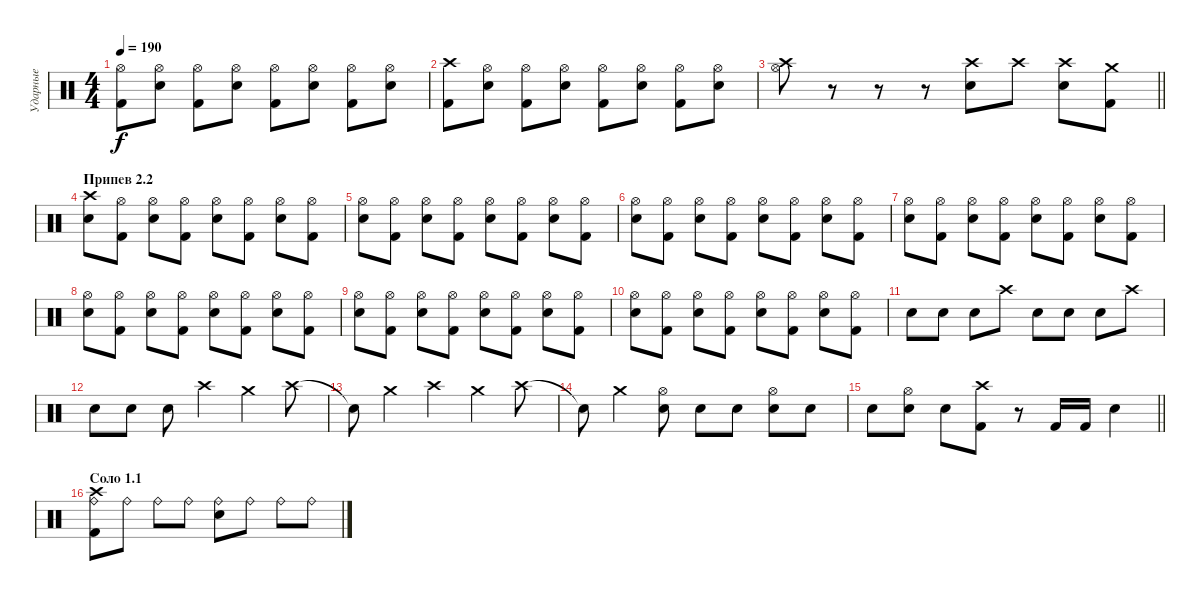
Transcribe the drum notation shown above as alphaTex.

\track ("Ударные" "Ударные") {instrument percussion}
\staff {score}
\articulation defaults
\ts (4 4)
\tempo 190
\clef neutral
\ks c
("Hi-Hat (open)" "Kick (hit) 2").8{dy f} ("Hi-Hat (open)" "Snare (hit) 2").8 ("Hi-Hat (open)" "Kick (hit) 2").8 ("Hi-Hat (open)" "Snare (hit) 2").8 ("Hi-Hat (open)" "Kick (hit) 2").8 ("Hi-Hat (open)" "Snare (hit) 2").8 ("Hi-Hat (open)" "Kick (hit) 2").8 ("Hi-Hat (open)" "Snare (hit) 2").8 |
("Crash high (hit)" "Kick (hit) 2").8 ("Hi-Hat (open)" "Snare (hit) 2").8 ("Hi-Hat (open)" "Kick (hit) 2").8 ("Hi-Hat (open)" "Snare (hit) 2").8 ("Hi-Hat (open)" "Kick (hit) 2").8 ("Hi-Hat (open)" "Snare (hit) 2").8 ("Hi-Hat (open)" "Kick (hit) 2").8 ("Hi-Hat (open)" "Snare (hit) 2").8 |
\barLineRight lightlight
("Hi-Hat (open)" "Crash high (hit)").8 r.8 r.8 r.8 ("Snare (hit) 2" "Crash high (hit)").8 "Crash high (hit)".8 ("Snare (hit) 2" "Crash high (hit)").8 ("Kick (hit) 2" "Crash medium (hit)").8 |
\section ("" "Припев 2.2")
("Crash high (hit)" "Snare (hit) 2").8 ("Hi-Hat (open)" "Kick (hit) 2").8 ("Hi-Hat (open)" "Snare (hit) 2").8 ("Hi-Hat (open)" "Kick (hit) 2").8 ("Hi-Hat (open)" "Snare (hit) 2").8 ("Hi-Hat (open)" "Kick (hit) 2").8 ("Hi-Hat (open)" "Snare (hit) 2").8 ("Hi-Hat (open)" "Kick (hit) 2").8 |
("Hi-Hat (open)" "Snare (hit) 2").8 ("Hi-Hat (open)" "Kick (hit) 2").8 ("Hi-Hat (open)" "Snare (hit) 2").8 ("Hi-Hat (open)" "Kick (hit) 2").8 ("Hi-Hat (open)" "Snare (hit) 2").8 ("Hi-Hat (open)" "Kick (hit) 2").8 ("Hi-Hat (open)" "Snare (hit) 2").8 ("Hi-Hat (open)" "Kick (hit) 2").8 |
("Hi-Hat (open)" "Snare (hit) 2").8 ("Hi-Hat (open)" "Kick (hit) 2").8 ("Hi-Hat (open)" "Snare (hit) 2").8 ("Hi-Hat (open)" "Kick (hit) 2").8 ("Hi-Hat (open)" "Snare (hit) 2").8 ("Hi-Hat (open)" "Kick (hit) 2").8 ("Hi-Hat (open)" "Snare (hit) 2").8 ("Hi-Hat (open)" "Kick (hit) 2").8 |
("Hi-Hat (open)" "Snare (hit) 2").8 ("Hi-Hat (open)" "Kick (hit) 2").8 ("Hi-Hat (open)" "Snare (hit) 2").8 ("Hi-Hat (open)" "Kick (hit) 2").8 ("Hi-Hat (open)" "Snare (hit) 2").8 ("Hi-Hat (open)" "Kick (hit) 2").8 ("Hi-Hat (open)" "Snare (hit) 2").8 ("Hi-Hat (open)" "Kick (hit) 2").8 |
("Hi-Hat (open)" "Snare (hit) 2").8 ("Hi-Hat (open)" "Kick (hit) 2").8 ("Hi-Hat (open)" "Snare (hit) 2").8 ("Hi-Hat (open)" "Kick (hit) 2").8 ("Hi-Hat (open)" "Snare (hit) 2").8 ("Hi-Hat (open)" "Kick (hit) 2").8 ("Hi-Hat (open)" "Snare (hit) 2").8 ("Hi-Hat (open)" "Kick (hit) 2").8 |
("Hi-Hat (open)" "Snare (hit) 2").8 ("Hi-Hat (open)" "Kick (hit) 2").8 ("Hi-Hat (open)" "Snare (hit) 2").8 ("Hi-Hat (open)" "Kick (hit) 2").8 ("Hi-Hat (open)" "Snare (hit) 2").8 ("Hi-Hat (open)" "Kick (hit) 2").8 ("Hi-Hat (open)" "Snare (hit) 2").8 ("Hi-Hat (open)" "Kick (hit) 2").8 |
("Hi-Hat (open)" "Snare (hit) 2").8 ("Hi-Hat (open)" "Kick (hit) 2").8 ("Hi-Hat (open)" "Snare (hit) 2").8 ("Hi-Hat (open)" "Kick (hit) 2").8 ("Hi-Hat (open)" "Snare (hit) 2").8 ("Hi-Hat (open)" "Kick (hit) 2").8 ("Hi-Hat (open)" "Snare (hit) 2").8 ("Hi-Hat (open)" "Kick (hit) 2").8 |
"Electric Snare (hit)".8 "Electric Snare (hit)".8 "Electric Snare (hit)".8 "Crash high (hit)".8 "Electric Snare (hit)".8 "Electric Snare (hit)".8 "Electric Snare (hit)".8 "Crash high (hit)".8 |
"Electric Snare (hit)".8 "Electric Snare (hit)".8 "Electric Snare (hit)".8 "Crash high (hit)".4 "Crash medium (hit)".4 "Crash high (hit)".8 |
"Snare (hit)"{t}.8 "Crash medium (hit)".4 "Crash high (hit)".4 "Crash medium (hit)".4 "Crash high (hit)".8 |
"Snare (hit)"{t}.8 "Crash medium (hit)".4 ("Hi-Hat (open)" "Snare (hit) 2").8 "Electric Snare (hit)".8 "Electric Snare (hit)".8 ("Hi-Hat (open)" "Snare (hit) 2").8 "Electric Snare (hit)".8 |
\barLineRight lightlight "Electric Snare (hit)".8
("Hi-Hat (open)" "Snare (hit) 2").8 "Electric Snare (hit)".8 ("Kick (hit) 2" "Crash high (hit)").8 r.8 "Kick (hit) 2".16 "Kick (hit) 2".16 "Electric Snare (hit)".4 |
\section ("" "Соло 1.1")
("Crash high (hit)" "Ride (bell)" "Kick (hit) 2").8 "Ride (bell)".8 "Ride (bell)".8 "Ride (bell)".8 ("Ride (bell)" "Electric Snare (hit)").8 "Ride (bell)".8 "Ride (bell)".8 "Ride (bell)".8
